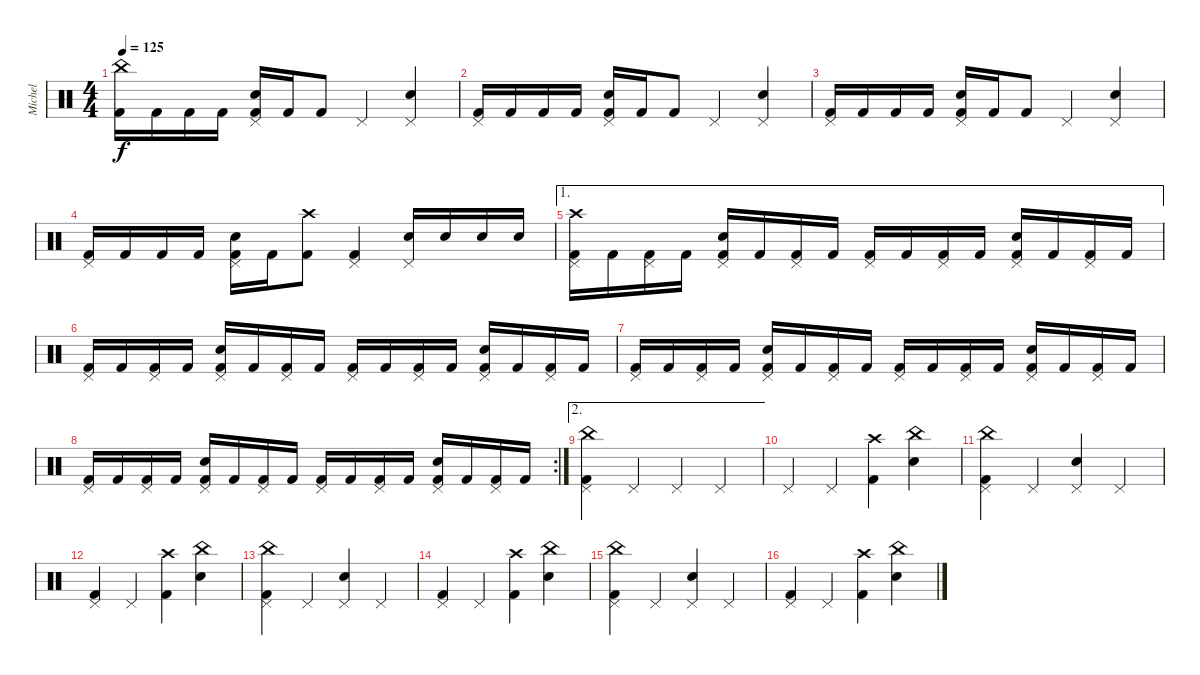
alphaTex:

\track ("Michel" "Michel") {instrument percussion}
\staff {score}
\articulation defaults
\ts (4 4)
\tempo 125
\clef neutral
\ks c
("China (hit)" "Kick (hit) 2").16{dy f} "Kick (hit) 2".16 "Kick (hit) 2".16 "Kick (hit) 2".16 ("Snare (hit) 2" "Kick (hit) 2" "Pedal Hi-Hat (hit)").16 "Kick (hit) 2".16 "Kick (hit) 2".8 "Pedal Hi-Hat (hit)".4 ("Snare (hit) 2" "Pedal Hi-Hat (hit)").4 |
("Kick (hit) 2" "Pedal Hi-Hat (hit)").16 "Kick (hit) 2".16 "Kick (hit) 2".16 "Kick (hit) 2".16 ("Snare (hit) 2" "Kick (hit) 2" "Pedal Hi-Hat (hit)").16 "Kick (hit) 2".16 "Kick (hit) 2".8 "Pedal Hi-Hat (hit)".4 ("Snare (hit) 2" "Pedal Hi-Hat (hit)").4 |
("Kick (hit) 2" "Pedal Hi-Hat (hit)").16 "Kick (hit) 2".16 "Kick (hit) 2".16 "Kick (hit) 2".16 ("Snare (hit) 2" "Kick (hit) 2" "Pedal Hi-Hat (hit)").16 "Kick (hit) 2".16 "Kick (hit) 2".8 "Pedal Hi-Hat (hit)".4 ("Snare (hit) 2" "Pedal Hi-Hat (hit)").4 |
("Kick (hit) 2" "Pedal Hi-Hat (hit)").16 "Kick (hit) 2".16 "Kick (hit) 2".16 "Kick (hit) 2".16 ("Snare (hit) 2" "Kick (hit) 2" "Pedal Hi-Hat (hit)").16 "Kick (hit) 2".16 ("Crash high (hit)" "Kick (hit) 2").8 ("Kick (hit) 2" "Pedal Hi-Hat (hit)").4 ("Snare (hit) 2" "Pedal Hi-Hat (hit)").16 "Snare (hit) 2".16 "Snare (hit) 2".16 "Snare (hit) 2".16 |
\ae 1
("Crash high (hit)" "Kick (hit) 2" "Pedal Hi-Hat (hit)").16 "Kick (hit) 2".16 ("Kick (hit) 2" "Pedal Hi-Hat (hit)").16 "Kick (hit) 2".16 ("Snare (hit) 2" "Kick (hit) 2" "Pedal Hi-Hat (hit)").16 "Kick (hit) 2".16 ("Kick (hit) 2" "Pedal Hi-Hat (hit)").16 "Kick (hit) 2".16 ("Kick (hit) 2" "Pedal Hi-Hat (hit)").16 "Kick (hit) 2".16 ("Kick (hit) 2" "Pedal Hi-Hat (hit)").16 "Kick (hit) 2".16 ("Snare (hit) 2" "Kick (hit) 2" "Pedal Hi-Hat (hit)").16 "Kick (hit) 2".16 ("Kick (hit) 2" "Pedal Hi-Hat (hit)").16 "Kick (hit) 2".16 |
("Kick (hit) 2" "Pedal Hi-Hat (hit)").16 "Kick (hit) 2".16 ("Kick (hit) 2" "Pedal Hi-Hat (hit)").16 "Kick (hit) 2".16 ("Snare (hit) 2" "Kick (hit) 2" "Pedal Hi-Hat (hit)").16 "Kick (hit) 2".16 ("Kick (hit) 2" "Pedal Hi-Hat (hit)").16 "Kick (hit) 2".16 ("Kick (hit) 2" "Pedal Hi-Hat (hit)").16 "Kick (hit) 2".16 ("Kick (hit) 2" "Pedal Hi-Hat (hit)").16 "Kick (hit) 2".16 ("Snare (hit) 2" "Kick (hit) 2" "Pedal Hi-Hat (hit)").16 "Kick (hit) 2".16 ("Kick (hit) 2" "Pedal Hi-Hat (hit)").16 "Kick (hit) 2".16 |
("Kick (hit) 2" "Pedal Hi-Hat (hit)").16 "Kick (hit) 2".16 ("Kick (hit) 2" "Pedal Hi-Hat (hit)").16 "Kick (hit) 2".16 ("Snare (hit) 2" "Kick (hit) 2" "Pedal Hi-Hat (hit)").16 "Kick (hit) 2".16 ("Kick (hit) 2" "Pedal Hi-Hat (hit)").16 "Kick (hit) 2".16 ("Kick (hit) 2" "Pedal Hi-Hat (hit)").16 "Kick (hit) 2".16 ("Kick (hit) 2" "Pedal Hi-Hat (hit)").16 "Kick (hit) 2".16 ("Snare (hit) 2" "Kick (hit) 2" "Pedal Hi-Hat (hit)").16 "Kick (hit) 2".16 ("Kick (hit) 2" "Pedal Hi-Hat (hit)").16 "Kick (hit) 2".16 |
\rc 2
("Kick (hit) 2" "Pedal Hi-Hat (hit)").16 "Kick (hit) 2".16 ("Kick (hit) 2" "Pedal Hi-Hat (hit)").16 "Kick (hit) 2".16 ("Snare (hit) 2" "Kick (hit) 2" "Pedal Hi-Hat (hit)").16 "Kick (hit) 2".16 ("Kick (hit) 2" "Pedal Hi-Hat (hit)").16 "Kick (hit) 2".16 ("Kick (hit) 2" "Pedal Hi-Hat (hit)").16 "Kick (hit) 2".16 ("Kick (hit) 2" "Pedal Hi-Hat (hit)").16 "Kick (hit) 2".16 ("Snare (hit) 2" "Kick (hit) 2" "Pedal Hi-Hat (hit)").16 "Kick (hit) 2".16 ("Kick (hit) 2" "Pedal Hi-Hat (hit)").16 "Kick (hit) 2".16 |
\ae 2
("China (hit)" "Kick (hit) 2" "Pedal Hi-Hat (hit)").4 "Pedal Hi-Hat (hit)".4 "Pedal Hi-Hat (hit)".4 "Pedal Hi-Hat (hit)".4 |
"Pedal Hi-Hat (hit)".4 "Pedal Hi-Hat (hit)".4 ("Crash high (hit)" "Kick (hit) 2").4 ("China (hit)" "Snare (hit) 2").4 |
("China (hit)" "Kick (hit) 2" "Pedal Hi-Hat (hit)").4 "Pedal Hi-Hat (hit)".4 ("Snare (hit) 2" "Pedal Hi-Hat (hit)").4 "Pedal Hi-Hat (hit)".4 |
("Kick (hit) 2" "Pedal Hi-Hat (hit)").4 "Pedal Hi-Hat (hit)".4 ("Crash high (hit)" "Kick (hit) 2").4 ("China (hit)" "Snare (hit) 2").4 |
("China (hit)" "Kick (hit) 2" "Pedal Hi-Hat (hit)").4 "Pedal Hi-Hat (hit)".4 ("Snare (hit) 2" "Pedal Hi-Hat (hit)").4 "Pedal Hi-Hat (hit)".4 |
("Kick (hit) 2" "Pedal Hi-Hat (hit)").4 "Pedal Hi-Hat (hit)".4 ("Crash high (hit)" "Kick (hit) 2").4 ("China (hit)" "Snare (hit) 2").4 |
("China (hit)" "Kick (hit) 2" "Pedal Hi-Hat (hit)").4 "Pedal Hi-Hat (hit)".4 ("Snare (hit) 2" "Pedal Hi-Hat (hit)").4 "Pedal Hi-Hat (hit)".4 |
("Kick (hit) 2" "Pedal Hi-Hat (hit)").4 "Pedal Hi-Hat (hit)".4 ("Crash high (hit)" "Kick (hit) 2").4 ("China (hit)" "Snare (hit) 2").4
